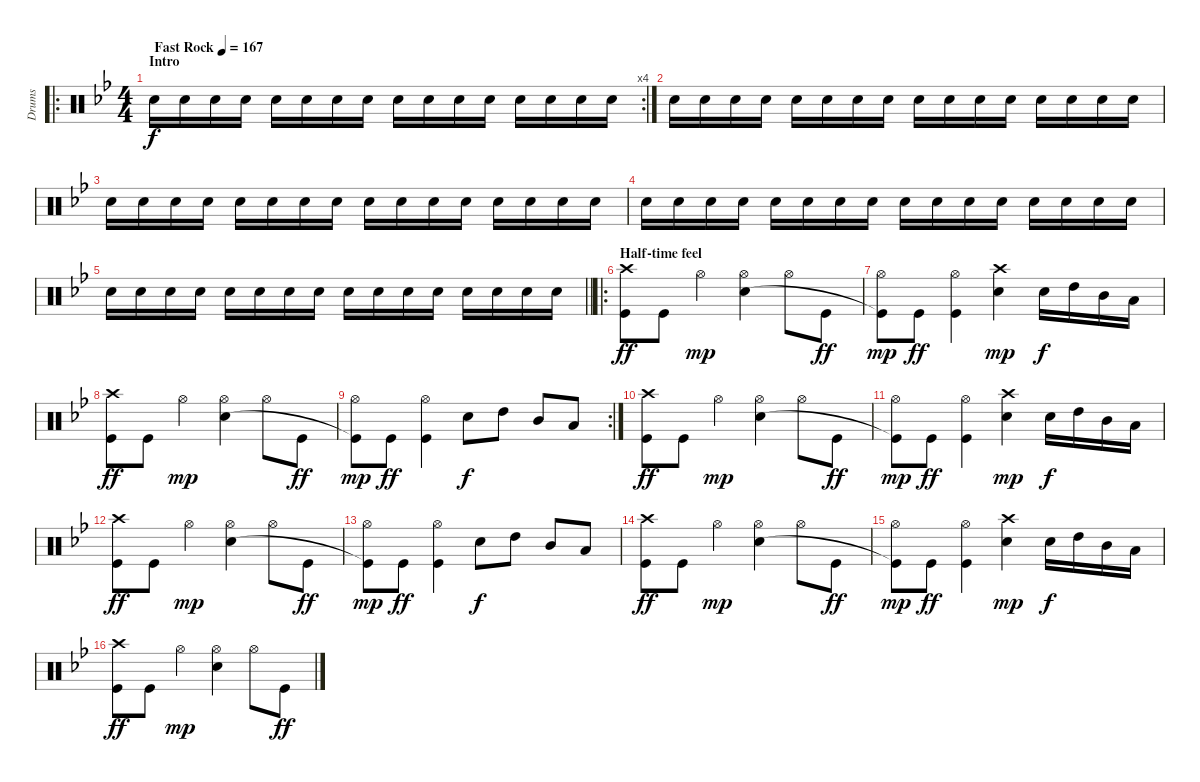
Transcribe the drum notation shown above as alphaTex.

\track ("Drums" "Drums") {instrument percussion}
\staff {score}
\articulation defaults
\ro
\rc 4
\ts (4 4)
\section ("" "Intro")
\tempo (167 "Fast Rock")
\clef neutral
\ks bb "Electric Snare (hit)".16{dy f} "Electric Snare (hit)".16 "Electric Snare (hit)".16 "Electric Snare (hit)".16 "Electric Snare (hit)".16 "Electric Snare (hit)".16 "Electric Snare (hit)".16 "Electric Snare (hit)".16 "Electric Snare (hit)".16 "Electric Snare (hit)".16 "Electric Snare (hit)".16 "Electric Snare (hit)".16 "Electric Snare (hit)".16 "Electric Snare (hit)".16 "Electric Snare (hit)".16 "Electric Snare (hit)".16
|
"Electric Snare (hit)".16 "Electric Snare (hit)".16 "Electric Snare (hit)".16 "Electric Snare (hit)".16 "Electric Snare (hit)".16 "Electric Snare (hit)".16 "Electric Snare (hit)".16 "Electric Snare (hit)".16 "Electric Snare (hit)".16 "Electric Snare (hit)".16 "Electric Snare (hit)".16 "Electric Snare (hit)".16 "Electric Snare (hit)".16 "Electric Snare (hit)".16 "Electric Snare (hit)".16 "Electric Snare (hit)".16 |
"Electric Snare (hit)".16 "Electric Snare (hit)".16 "Electric Snare (hit)".16 "Electric Snare (hit)".16 "Electric Snare (hit)".16 "Electric Snare (hit)".16 "Electric Snare (hit)".16 "Electric Snare (hit)".16 "Electric Snare (hit)".16 "Electric Snare (hit)".16 "Electric Snare (hit)".16 "Electric Snare (hit)".16 "Electric Snare (hit)".16 "Electric Snare (hit)".16 "Electric Snare (hit)".16 "Electric Snare (hit)".16 |
"Electric Snare (hit)".16 "Electric Snare (hit)".16 "Electric Snare (hit)".16 "Electric Snare (hit)".16 "Electric Snare (hit)".16 "Electric Snare (hit)".16 "Electric Snare (hit)".16 "Electric Snare (hit)".16 "Electric Snare (hit)".16 "Electric Snare (hit)".16 "Electric Snare (hit)".16 "Electric Snare (hit)".16 "Electric Snare (hit)".16 "Electric Snare (hit)".16 "Electric Snare (hit)".16 "Electric Snare (hit)".16 |
\barLineRight lightlight "Electric Snare (hit)".16 "Electric Snare (hit)".16 "Electric Snare (hit)".16 "Electric Snare (hit)".16 "Electric Snare (hit)".16 "Electric Snare (hit)".16 "Electric Snare (hit)".16 "Electric Snare (hit)".16 "Electric Snare (hit)".16 "Electric Snare (hit)".16 "Electric Snare (hit)".16 "Electric Snare (hit)".16 "Electric Snare (hit)".16 "Electric Snare (hit)".16 "Electric Snare (hit)".16 "Electric Snare (hit)".16
|
\ro
\section ("" "Half-time feel")
("Crash high (hit)" "Kick (hit)").8{dy ff} "Kick (hit)".8 "Hi-Hat (open)".4{dy mp} ("Hi-Hat (open)" "Electric Snare (hit)").4 "Hi-Hat (open)".8 "Kick (hit)".8{dy ff} |
("Hi-Hat (open)" "Kick (hit)"{t}).8{dy mp} "Kick (hit)".8{dy ff} ("Hi-Hat (open)" "Kick (hit)").4 ("Crash high (hit)" "Electric Snare (hit)").4{dy mp} "Electric Snare (hit)".16{dy f} "High Tom (hit)".16 "Mid Tom (hit)".16 "Low Tom (hit)".16 |
("Crash high (hit)" "Kick (hit)").8{dy ff} "Kick (hit)".8 "Hi-Hat (open)".4{dy mp} ("Hi-Hat (open)" "Electric Snare (hit)").4 "Hi-Hat (open)".8 "Kick (hit)".8{dy ff} |
\rc 2
("Hi-Hat (open)" "Kick (hit)"{t}).8{dy mp} "Kick (hit)".8{dy ff} ("Hi-Hat (open)" "Kick (hit)").4 "Electric Snare (hit)".8{dy f} "High Tom (hit)".8 "Mid Tom (hit)".8 "Low Tom (hit)".8 |
("Crash high (hit)" "Kick (hit)").8{dy ff} "Kick (hit)".8 "Hi-Hat (open)".4{dy mp} ("Hi-Hat (open)" "Electric Snare (hit)").4 "Hi-Hat (open)".8 "Kick (hit)".8{dy ff} |
("Hi-Hat (open)" "Kick (hit)"{t}).8{dy mp} "Kick (hit)".8{dy ff} ("Hi-Hat (open)" "Kick (hit)").4 ("Crash high (hit)" "Electric Snare (hit)").4{dy mp} "Electric Snare (hit)".16{dy f} "High Tom (hit)".16 "Mid Tom (hit)".16 "Low Tom (hit)".16 |
("Crash high (hit)" "Kick (hit)").8{dy ff} "Kick (hit)".8 "Hi-Hat (open)".4{dy mp} ("Hi-Hat (open)" "Electric Snare (hit)").4 "Hi-Hat (open)".8 "Kick (hit)".8{dy ff} |
("Hi-Hat (open)" "Kick (hit)"{t}).8{dy mp} "Kick (hit)".8{dy ff} ("Hi-Hat (open)" "Kick (hit)").4 "Electric Snare (hit)".8{dy f} "High Tom (hit)".8 "Mid Tom (hit)".8 "Low Tom (hit)".8 |
("Crash high (hit)" "Kick (hit)").8{dy ff} "Kick (hit)".8 "Hi-Hat (open)".4{dy mp} ("Hi-Hat (open)" "Electric Snare (hit)").4 "Hi-Hat (open)".8 "Kick (hit)".8{dy ff} |
("Hi-Hat (open)" "Kick (hit)"{t}).8{dy mp} "Kick (hit)".8{dy ff} ("Hi-Hat (open)" "Kick (hit)").4 ("Crash high (hit)" "Electric Snare (hit)").4{dy mp} "Electric Snare (hit)".16{dy f} "High Tom (hit)".16 "Mid Tom (hit)".16 "Low Tom (hit)".16 |
("Crash high (hit)" "Kick (hit)").8{dy ff} "Kick (hit)".8 "Hi-Hat (open)".4{dy mp} ("Hi-Hat (open)" "Electric Snare (hit)").4 "Hi-Hat (open)".8 "Kick (hit)".8{dy ff}
